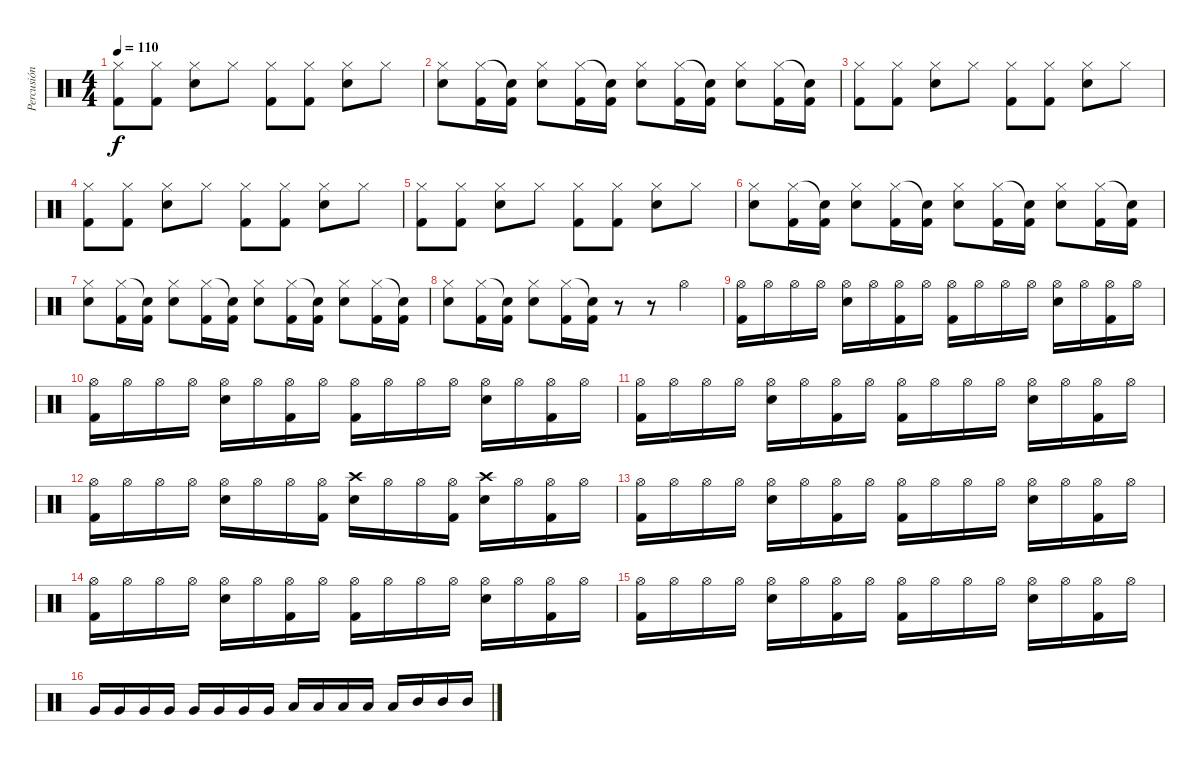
\track ("Percusión" "Percusión") {instrument percussion}
\staff {score}
\articulation defaults
\ts (4 4)
\tempo 110
\clef neutral
\ks c
("Hi-Hat (closed)" "Kick (hit) 2").8{dy f} ("Hi-Hat (closed)" "Kick (hit) 2").8 ("Hi-Hat (closed)" "Electric Snare (hit)").8 "Hi-Hat (closed)".8 ("Hi-Hat (closed)" "Kick (hit) 2").8 ("Hi-Hat (closed)" "Kick (hit) 2").8 ("Hi-Hat (closed)" "Electric Snare (hit)").8 "Hi-Hat (closed)".8 |
("Hi-Hat (closed)" "Electric Snare (hit)").8 ("Hi-Hat (closed)" "Kick (hit) 2").16 ("Snare (hit)"{t} "Kick (hit) 2").16 ("Hi-Hat (closed)" "Electric Snare (hit)").8 ("Hi-Hat (closed)" "Kick (hit) 2").16 ("Snare (hit)"{t} "Kick (hit) 2").16 ("Hi-Hat (closed)" "Electric Snare (hit)").8 ("Hi-Hat (closed)" "Kick (hit) 2").16 ("Snare (hit)"{t} "Kick (hit) 2").16 ("Hi-Hat (closed)" "Electric Snare (hit)").8 ("Hi-Hat (closed)" "Kick (hit) 2").16 ("Snare (hit)"{t} "Kick (hit) 2").16 |
("Hi-Hat (closed)" "Kick (hit) 2").8 ("Hi-Hat (closed)" "Kick (hit) 2").8 ("Hi-Hat (closed)" "Electric Snare (hit)").8 "Hi-Hat (closed)".8 ("Hi-Hat (closed)" "Kick (hit) 2").8 ("Hi-Hat (closed)" "Kick (hit) 2").8 ("Hi-Hat (closed)" "Electric Snare (hit)").8 "Hi-Hat (closed)".8 |
("Hi-Hat (closed)" "Kick (hit) 2").8 ("Hi-Hat (closed)" "Kick (hit) 2").8 ("Hi-Hat (closed)" "Electric Snare (hit)").8 "Hi-Hat (closed)".8 ("Hi-Hat (closed)" "Kick (hit) 2").8 ("Hi-Hat (closed)" "Kick (hit) 2").8 ("Hi-Hat (closed)" "Electric Snare (hit)").8 "Hi-Hat (closed)".8 |
("Hi-Hat (closed)" "Kick (hit) 2").8 ("Hi-Hat (closed)" "Kick (hit) 2").8 ("Hi-Hat (closed)" "Electric Snare (hit)").8 "Hi-Hat (closed)".8 ("Hi-Hat (closed)" "Kick (hit) 2").8 ("Hi-Hat (closed)" "Kick (hit) 2").8 ("Hi-Hat (closed)" "Electric Snare (hit)").8 "Hi-Hat (closed)".8 |
("Hi-Hat (closed)" "Electric Snare (hit)").8 ("Hi-Hat (closed)" "Kick (hit) 2").16 ("Snare (hit)"{t} "Kick (hit) 2").16 ("Hi-Hat (closed)" "Electric Snare (hit)").8 ("Hi-Hat (closed)" "Kick (hit) 2").16 ("Snare (hit)"{t} "Kick (hit) 2").16 ("Hi-Hat (closed)" "Electric Snare (hit)").8 ("Hi-Hat (closed)" "Kick (hit) 2").16 ("Snare (hit)"{t} "Kick (hit) 2").16 ("Hi-Hat (closed)" "Electric Snare (hit)").8 ("Hi-Hat (closed)" "Kick (hit) 2").16 ("Snare (hit)"{t} "Kick (hit) 2").16 |
("Hi-Hat (closed)" "Electric Snare (hit)").8 ("Hi-Hat (closed)" "Kick (hit) 2").16 ("Snare (hit)"{t} "Kick (hit) 2").16 ("Hi-Hat (closed)" "Electric Snare (hit)").8 ("Hi-Hat (closed)" "Kick (hit) 2").16 ("Snare (hit)"{t} "Kick (hit) 2").16 ("Hi-Hat (closed)" "Electric Snare (hit)").8 ("Hi-Hat (closed)" "Kick (hit) 2").16 ("Snare (hit)"{t} "Kick (hit) 2").16 ("Hi-Hat (closed)" "Electric Snare (hit)").8 ("Hi-Hat (closed)" "Kick (hit) 2").16 ("Snare (hit)"{t} "Kick (hit) 2").16 |
("Hi-Hat (closed)" "Electric Snare (hit)").8 ("Hi-Hat (closed)" "Kick (hit) 2").16 ("Snare (hit)"{t} "Kick (hit) 2").16 ("Hi-Hat (closed)" "Electric Snare (hit)").8 ("Hi-Hat (closed)" "Kick (hit) 2").16 ("Snare (hit)"{t} "Kick (hit) 2").16 r.8 r.8 "Hi-Hat (open)".4 |
("Hi-Hat (open)" "Kick (hit) 2").16 "Hi-Hat (open)".16 "Hi-Hat (open)".16 "Hi-Hat (open)".16 ("Hi-Hat (open)" "Electric Snare (hit)").16 "Hi-Hat (open)".16 ("Hi-Hat (open)" "Kick (hit) 2").16 "Hi-Hat (open)".16 ("Hi-Hat (open)" "Kick (hit) 2").16 "Hi-Hat (open)".16 "Hi-Hat (open)".16 "Hi-Hat (open)".16 ("Hi-Hat (open)" "Electric Snare (hit)").16 "Hi-Hat (open)".16 ("Hi-Hat (open)" "Kick (hit) 2").16 "Hi-Hat (open)".16 |
("Hi-Hat (open)" "Kick (hit) 2").16 "Hi-Hat (open)".16 "Hi-Hat (open)".16 "Hi-Hat (open)".16 ("Hi-Hat (open)" "Electric Snare (hit)").16 "Hi-Hat (open)".16 ("Hi-Hat (open)" "Kick (hit) 2").16 "Hi-Hat (open)".16 ("Hi-Hat (open)" "Kick (hit) 2").16 "Hi-Hat (open)".16 "Hi-Hat (open)".16 "Hi-Hat (open)".16 ("Hi-Hat (open)" "Electric Snare (hit)").16 "Hi-Hat (open)".16 ("Hi-Hat (open)" "Kick (hit) 2").16 "Hi-Hat (open)".16 |
("Hi-Hat (open)" "Kick (hit) 2").16 "Hi-Hat (open)".16 "Hi-Hat (open)".16 "Hi-Hat (open)".16 ("Hi-Hat (open)" "Electric Snare (hit)").16 "Hi-Hat (open)".16 ("Hi-Hat (open)" "Kick (hit) 2").16 "Hi-Hat (open)".16 ("Hi-Hat (open)" "Kick (hit) 2").16 "Hi-Hat (open)".16 "Hi-Hat (open)".16 "Hi-Hat (open)".16 ("Hi-Hat (open)" "Electric Snare (hit)").16 "Hi-Hat (open)".16 ("Hi-Hat (open)" "Kick (hit) 2").16 "Hi-Hat (open)".16 |
("Hi-Hat (open)" "Kick (hit) 2").16 "Hi-Hat (open)".16 "Hi-Hat (open)".16 "Hi-Hat (open)".16 ("Hi-Hat (open)" "Electric Snare (hit)").16 "Hi-Hat (open)".16 "Hi-Hat (open)".16 ("Hi-Hat (open)" "Kick (hit) 2").16 ("Crash high (hit)" "Electric Snare (hit)").16 "Hi-Hat (open)".16 "Hi-Hat (open)".16 ("Hi-Hat (open)" "Kick (hit) 2").16 ("Crash high (hit)" "Electric Snare (hit)").16 "Hi-Hat (open)".16 ("Hi-Hat (open)" "Kick (hit) 2").16 "Hi-Hat (open)".16 |
("Hi-Hat (open)" "Kick (hit) 2").16 "Hi-Hat (open)".16 "Hi-Hat (open)".16 "Hi-Hat (open)".16 ("Hi-Hat (open)" "Electric Snare (hit)").16 "Hi-Hat (open)".16 ("Hi-Hat (open)" "Kick (hit) 2").16 "Hi-Hat (open)".16 ("Hi-Hat (open)" "Kick (hit) 2").16 "Hi-Hat (open)".16 "Hi-Hat (open)".16 "Hi-Hat (open)".16 ("Hi-Hat (open)" "Electric Snare (hit)").16 "Hi-Hat (open)".16 ("Hi-Hat (open)" "Kick (hit) 2").16 "Hi-Hat (open)".16 |
("Hi-Hat (open)" "Kick (hit) 2").16 "Hi-Hat (open)".16 "Hi-Hat (open)".16 "Hi-Hat (open)".16 ("Hi-Hat (open)" "Electric Snare (hit)").16 "Hi-Hat (open)".16 ("Hi-Hat (open)" "Kick (hit) 2").16 "Hi-Hat (open)".16 ("Hi-Hat (open)" "Kick (hit) 2").16 "Hi-Hat (open)".16 "Hi-Hat (open)".16 "Hi-Hat (open)".16 ("Hi-Hat (open)" "Electric Snare (hit)").16 "Hi-Hat (open)".16 ("Hi-Hat (open)" "Kick (hit) 2").16 "Hi-Hat (open)".16 |
("Hi-Hat (open)" "Kick (hit) 2").16 "Hi-Hat (open)".16 "Hi-Hat (open)".16 "Hi-Hat (open)".16 ("Hi-Hat (open)" "Electric Snare (hit)").16 "Hi-Hat (open)".16 ("Hi-Hat (open)" "Kick (hit) 2").16 "Hi-Hat (open)".16 ("Hi-Hat (open)" "Kick (hit) 2").16 "Hi-Hat (open)".16 "Hi-Hat (open)".16 "Hi-Hat (open)".16 ("Hi-Hat (open)" "Electric Snare (hit)").16 "Hi-Hat (open)".16 ("Hi-Hat (open)" "Kick (hit) 2").16 "Hi-Hat (open)".16 |
"Very Low Tom (hit)".16 "Very Low Tom (hit)".16 "Very Low Tom (hit)".16 "Very Low Tom (hit)".16 "Very Low Tom (hit)".16 "Very Low Tom (hit)".16 "Very Low Tom (hit)".16 "Very Low Tom (hit)".16 "Low Tom (hit)".16 "Low Tom (hit)".16 "Low Tom (hit)".16 "Low Tom (hit)".16 "Low Tom (hit)".16 "Mid Tom (hit)".16 "Mid Tom (hit)".16 "Mid Tom (hit)".16
